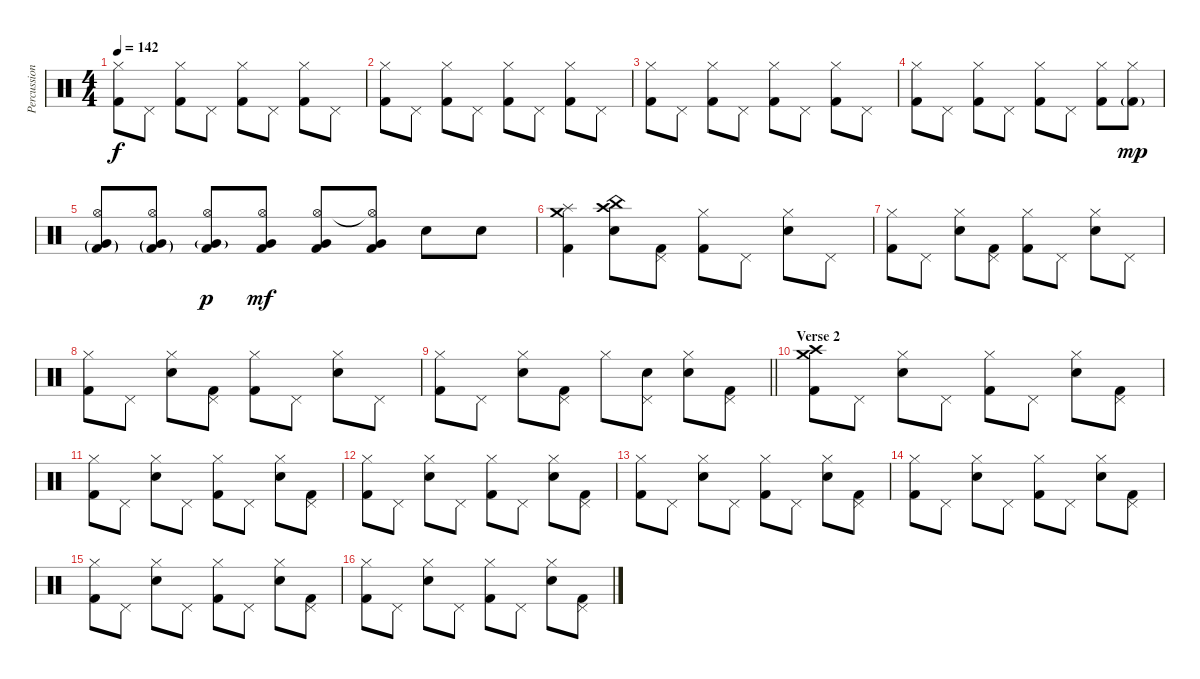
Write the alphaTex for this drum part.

\track ("Percussion" "Percussion") {instrument percussion}
\staff {score}
\articulation defaults
\ts (4 4)
\tempo 142
\clef neutral
\ks c
("Hi-Hat (closed)" "Kick (hit) 2").8{dy f} "Pedal Hi-Hat (hit)".8 ("Hi-Hat (closed)" "Kick (hit) 2").8 "Pedal Hi-Hat (hit)".8 ("Hi-Hat (closed)" "Kick (hit) 2").8 "Pedal Hi-Hat (hit)".8 ("Hi-Hat (closed)" "Kick (hit) 2").8 "Pedal Hi-Hat (hit)".8 |
("Hi-Hat (closed)" "Kick (hit) 2").8 "Pedal Hi-Hat (hit)".8 ("Hi-Hat (closed)" "Kick (hit) 2").8 "Pedal Hi-Hat (hit)".8 ("Hi-Hat (closed)" "Kick (hit) 2").8 "Pedal Hi-Hat (hit)".8 ("Hi-Hat (closed)" "Kick (hit) 2").8 "Pedal Hi-Hat (hit)".8 |
("Hi-Hat (closed)" "Kick (hit) 2").8 "Pedal Hi-Hat (hit)".8 ("Hi-Hat (closed)" "Kick (hit) 2").8 "Pedal Hi-Hat (hit)".8 ("Hi-Hat (closed)" "Kick (hit) 2").8 "Pedal Hi-Hat (hit)".8 ("Hi-Hat (closed)" "Kick (hit) 2").8 "Pedal Hi-Hat (hit)".8 |
("Hi-Hat (closed)" "Kick (hit) 2").8 "Pedal Hi-Hat (hit)".8 ("Hi-Hat (closed)" "Kick (hit) 2").8 "Pedal Hi-Hat (hit)".8 ("Hi-Hat (closed)" "Kick (hit) 2").8 "Pedal Hi-Hat (hit)".8 ("Hi-Hat (closed)" "Kick (hit) 2").8 ("Hi-Hat (closed)" "Kick (hit) 2"{g}).8{dy mp} |
("Hi-Hat (open)" "Very Low Tom (hit)"{g} "Kick (hit) 2"{g}).8 ("Hi-Hat (open)" "Very Low Tom (hit)"{g} "Kick (hit) 2"{g}).8 ("Hi-Hat (open)" "Very Low Tom (hit)"{g} "Kick (hit) 2").8{dy p} ("Hi-Hat (open)" "Very Low Tom (hit)" "Kick (hit) 2").8{dy mf} ("Hi-Hat (open)" "Very Low Tom (hit)" "Kick (hit) 2").8 ("Hi-Hat (open)"{t} "Very Low Tom (hit)" "Kick (hit) 2").8 "Snare (hit) 2".8 "Snare (hit) 2".8 |
("Crash medium (hit)" "Splash (hit)" "Kick (hit) 2").4 ("Crash high (hit)" "China (hit)" "Snare (hit) 2").8 ("Pedal Hi-Hat (hit)" "Kick (hit) 2").8 ("Hi-Hat (closed)" "Kick (hit) 2").8 "Pedal Hi-Hat (hit)".8 ("Snare (hit) 2" "Hi-Hat (closed)").8 "Pedal Hi-Hat (hit)".8 |
("Hi-Hat (closed)" "Kick (hit) 2").8 "Pedal Hi-Hat (hit)".8 ("Snare (hit) 2" "Hi-Hat (closed)").8 ("Pedal Hi-Hat (hit)" "Kick (hit) 2").8 ("Hi-Hat (closed)" "Kick (hit) 2").8 "Pedal Hi-Hat (hit)".8 ("Snare (hit) 2" "Hi-Hat (closed)").8 "Pedal Hi-Hat (hit)".8 |
("Hi-Hat (closed)" "Kick (hit) 2").8 "Pedal Hi-Hat (hit)".8 ("Snare (hit) 2" "Hi-Hat (closed)").8 ("Pedal Hi-Hat (hit)" "Kick (hit) 2").8 ("Hi-Hat (closed)" "Kick (hit) 2").8 "Pedal Hi-Hat (hit)".8 ("Snare (hit) 2" "Hi-Hat (closed)").8 "Pedal Hi-Hat (hit)".8 |
\barLineRight lightlight
("Hi-Hat (closed)" "Kick (hit) 2").8 "Pedal Hi-Hat (hit)".8 ("Snare (hit) 2" "Hi-Hat (closed)").8 ("Pedal Hi-Hat (hit)" "Kick (hit) 2").8 "Hi-Hat (closed)".8 ("Snare (hit) 2" "Pedal Hi-Hat (hit)").8 ("Snare (hit) 2" "Hi-Hat (closed)").8 ("Pedal Hi-Hat (hit)" "Kick (hit) 2").8 |
\section ("" "Verse 2")
("Crash medium (hit)" "Crash high (hit)" "Kick (hit) 2").8 "Pedal Hi-Hat (hit)".8 ("Snare (hit) 2" "Hi-Hat (closed)").8 "Pedal Hi-Hat (hit)".8 ("Hi-Hat (closed)" "Kick (hit) 2").8 "Pedal Hi-Hat (hit)".8 ("Snare (hit) 2" "Hi-Hat (closed)").8 ("Pedal Hi-Hat (hit)" "Kick (hit) 2").8 |
("Hi-Hat (closed)" "Kick (hit) 2").8 "Pedal Hi-Hat (hit)".8 ("Snare (hit) 2" "Hi-Hat (closed)").8 "Pedal Hi-Hat (hit)".8 ("Hi-Hat (closed)" "Kick (hit) 2").8 "Pedal Hi-Hat (hit)".8 ("Snare (hit) 2" "Hi-Hat (closed)").8 ("Pedal Hi-Hat (hit)" "Kick (hit) 2").8 |
("Hi-Hat (closed)" "Kick (hit) 2").8 "Pedal Hi-Hat (hit)".8 ("Snare (hit) 2" "Hi-Hat (closed)").8 "Pedal Hi-Hat (hit)".8 ("Hi-Hat (closed)" "Kick (hit) 2").8 "Pedal Hi-Hat (hit)".8 ("Snare (hit) 2" "Hi-Hat (closed)").8 ("Pedal Hi-Hat (hit)" "Kick (hit) 2").8 |
("Hi-Hat (closed)" "Kick (hit) 2").8 "Pedal Hi-Hat (hit)".8 ("Snare (hit) 2" "Hi-Hat (closed)").8 "Pedal Hi-Hat (hit)".8 ("Hi-Hat (closed)" "Kick (hit) 2").8 "Pedal Hi-Hat (hit)".8 ("Snare (hit) 2" "Hi-Hat (closed)").8 ("Pedal Hi-Hat (hit)" "Kick (hit) 2").8 |
("Hi-Hat (closed)" "Kick (hit) 2").8 "Pedal Hi-Hat (hit)".8 ("Snare (hit) 2" "Hi-Hat (closed)").8 "Pedal Hi-Hat (hit)".8 ("Hi-Hat (closed)" "Kick (hit) 2").8 "Pedal Hi-Hat (hit)".8 ("Snare (hit) 2" "Hi-Hat (closed)").8 ("Pedal Hi-Hat (hit)" "Kick (hit) 2").8 |
("Hi-Hat (closed)" "Kick (hit) 2").8 "Pedal Hi-Hat (hit)".8 ("Snare (hit) 2" "Hi-Hat (closed)").8 "Pedal Hi-Hat (hit)".8 ("Hi-Hat (closed)" "Kick (hit) 2").8 "Pedal Hi-Hat (hit)".8 ("Snare (hit) 2" "Hi-Hat (closed)").8 ("Pedal Hi-Hat (hit)" "Kick (hit) 2").8 |
("Hi-Hat (closed)" "Kick (hit) 2").8 "Pedal Hi-Hat (hit)".8 ("Snare (hit) 2" "Hi-Hat (closed)").8 "Pedal Hi-Hat (hit)".8 ("Hi-Hat (closed)" "Kick (hit) 2").8 "Pedal Hi-Hat (hit)".8 ("Snare (hit) 2" "Hi-Hat (closed)").8 ("Pedal Hi-Hat (hit)" "Kick (hit) 2").8
